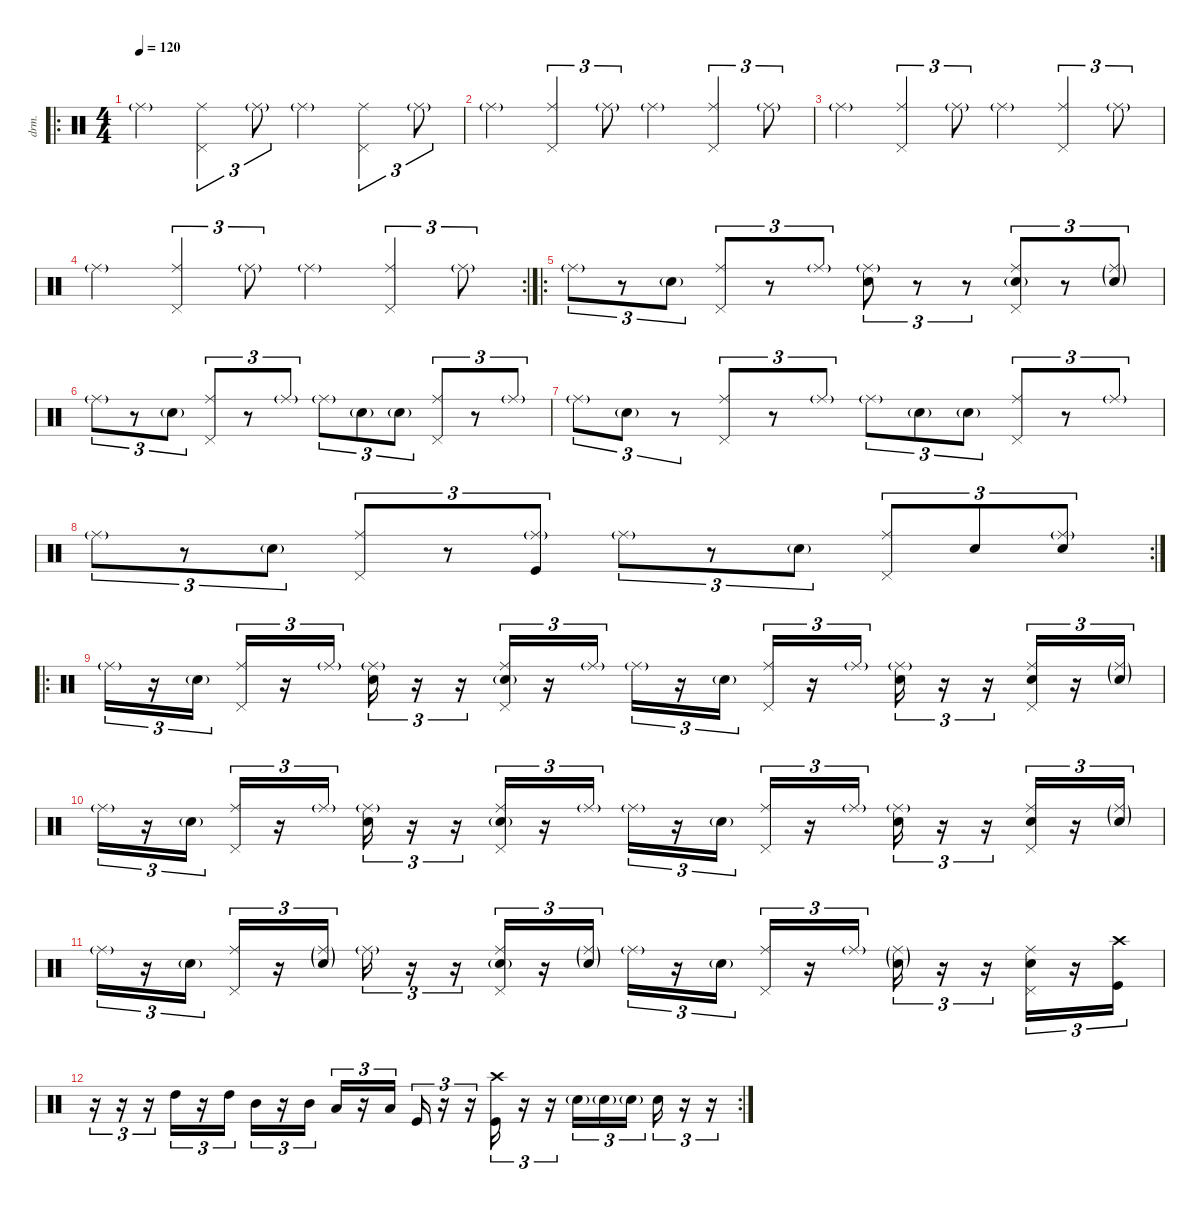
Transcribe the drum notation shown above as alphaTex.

\defaultSystemsLayout 4
\hideDynamics
\bracketExtendMode nobrackets
\track ("5_4" "drm.") {instrument percussion}
\staff {score}
\articulation defaults
\ro
\ts (4 4)
\tempo 120
\clef neutral
\ks c "Ride (middle)"{g}.4{dy mf beam Down}
("Ride (middle)" "Pedal Hi-Hat (hit)").4{tu (3 2) beam Down} "Ride (middle)"{g}.8{tu (3 2) beam Down} "Ride (middle)"{g}.4{beam Down} ("Ride (middle)" "Pedal Hi-Hat (hit)").4{tu (3 2) beam Down} "Ride (middle)"{g}.8{tu (3 2) beam Down} |
"Ride (middle)"{g}.4{beam Down} ("Ride (middle)" "Pedal Hi-Hat (hit)").4{tu (3 2) beam Up} "Ride (middle)"{g}.8{tu (3 2) beam Down} "Ride (middle)"{g}.4{beam Down} ("Ride (middle)" "Pedal Hi-Hat (hit)").4{tu (3 2) beam Up} "Ride (middle)"{g}.8{tu (3 2) beam Down} |
"Ride (middle)"{g}.4{beam Down} ("Ride (middle)" "Pedal Hi-Hat (hit)").4{tu (3 2) beam Up} "Ride (middle)"{g}.8{tu (3 2) beam Down} "Ride (middle)"{g}.4{beam Down} ("Ride (middle)" "Pedal Hi-Hat (hit)").4{tu (3 2) beam Up} "Ride (middle)"{g}.8{tu (3 2) beam Down} |
\rc 2 "Ride (middle)"{g}.4{beam Down}
("Ride (middle)" "Pedal Hi-Hat (hit)").4{tu (3 2) beam Up} "Ride (middle)"{g}.8{tu (3 2) beam Down} "Ride (middle)"{g}.4{beam Down} ("Ride (middle)" "Pedal Hi-Hat (hit)").4{tu (3 2) beam Up} "Ride (middle)"{g}.8{tu (3 2) beam Down} |
\ro "Ride (middle)"{g}.8{tu (3 2) beam Down}
r.8{tu (3 2) beam Down} "Snare (hit) 2"{g}.8{tu (3 2) beam Down} ("Ride (middle)" "Pedal Hi-Hat (hit)").8{tu (3 2) beam Up} r.8{tu (3 2) beam Up} "Ride (middle)"{g}.8{tu (3 2) beam Up} ("Ride (middle)"{g} "Snare (hit) 2").8{tu (3 2) beam Down} r.8{tu (3 2) beam Down} r.8{tu (3 2) beam Down} ("Ride (middle)" "Pedal Hi-Hat (hit)" "Snare (hit) 2"{g}).8{tu (3 2) beam Up} r.8{tu (3 2) beam Up} ("Ride (middle)"{g} "Snare (hit) 2"{g}).8{tu (3 2) beam Up} |
"Ride (middle)"{g}.8{tu (3 2) beam Down} r.8{tu (3 2) beam Down} "Snare (hit) 2"{g}.8{tu (3 2) beam Down} ("Ride (middle)" "Pedal Hi-Hat (hit)").8{tu (3 2) beam Up} r.8{tu (3 2) beam Up} "Ride (middle)"{g}.8{tu (3 2) beam Up} "Ride (middle)"{g}.8{tu (3 2) beam Down} "Snare (hit) 2"{g}.8{tu (3 2) beam Down} "Snare (hit) 2"{g}.8{tu (3 2) beam Down} ("Ride (middle)" "Pedal Hi-Hat (hit)").8{tu (3 2) beam Up} r.8{tu (3 2) beam Up} "Ride (middle)"{g}.8{tu (3 2) beam Up} |
"Ride (middle)"{g}.8{tu (3 2) beam Down} "Snare (hit) 2"{g}.8{tu (3 2) beam Down} r.8{tu (3 2) beam Down} ("Ride (middle)" "Pedal Hi-Hat (hit)").8{tu (3 2) beam Up} r.8{tu (3 2) beam Up} "Ride (middle)"{g}.8{tu (3 2) beam Up} "Ride (middle)"{g}.8{tu (3 2) beam Down} "Snare (hit) 2"{g}.8{tu (3 2) beam Down} "Snare (hit) 2"{g}.8{tu (3 2) beam Down} ("Ride (middle)" "Pedal Hi-Hat (hit)").8{tu (3 2) beam Up} r.8{tu (3 2) beam Up} "Ride (middle)"{g}.8{tu (3 2) beam Up} |
\rc 2 "Ride (middle)"{g}.8{tu (3 2) beam Down}
r.8{tu (3 2) beam Down} "Snare (hit) 2"{g}.8{tu (3 2) beam Down} ("Ride (middle)" "Pedal Hi-Hat (hit)").8{tu (3 2) beam Up} r.8{tu (3 2) beam Up} ("Ride (middle)"{g} "Kick (hit)").8{tu (3 2) beam Up} "Ride (middle)"{g}.8{tu (3 2) beam Down} r.8{tu (3 2) beam Down} "Snare (hit) 2"{g}.8{tu (3 2) beam Down} ("Ride (middle)" "Pedal Hi-Hat (hit)").8{tu (3 2) beam Up} "Snare (hit) 2".8{tu (3 2) beam Up} ("Ride (middle)"{g} "Snare (hit) 2").8{tu (3 2) beam Up} |
\ro "Ride (middle)"{g}.16{tu (3 2) beam Down}
r.16{tu (3 2) beam Down} "Snare (hit) 2"{g}.16{tu (3 2) beam Down} ("Ride (middle)" "Pedal Hi-Hat (hit)").16{tu (3 2) beam Up} r.16{tu (3 2) beam Up} "Ride (middle)"{g}.16{tu (3 2) beam Up} ("Ride (middle)"{g} "Snare (hit) 2").16{tu (3 2) beam Down} r.16{tu (3 2) beam Down} r.16{tu (3 2) beam Down} ("Ride (middle)" "Pedal Hi-Hat (hit)" "Snare (hit) 2"{g}).16{tu (3 2) beam Up} r.16{tu (3 2) beam Up} "Ride (middle)"{g}.16{tu (3 2) beam Up} "Ride (middle)"{g}.16{tu (3 2) beam Down} r.16{tu (3 2) beam Down} "Snare (hit) 2"{g}.16{tu (3 2) beam Down} ("Ride (middle)" "Pedal Hi-Hat (hit)").16{tu (3 2) beam Up} r.16{tu (3 2) beam Up} "Ride (middle)"{g}.16{tu (3 2) beam Up} ("Ride (middle)"{g} "Snare (hit) 2").16{tu (3 2) beam Down} r.16{tu (3 2) beam Down} r.16{tu (3 2) beam Down} ("Ride (middle)" "Pedal Hi-Hat (hit)" "Snare (hit) 2").16{tu (3 2) beam Up} r.16{tu (3 2) beam Up} ("Ride (middle)"{g} "Snare (hit) 2"{g}).16{tu (3 2) beam Up} |
"Ride (middle)"{g}.16{tu (3 2) beam Down} r.16{tu (3 2) beam Down} "Snare (hit) 2"{g}.16{tu (3 2) beam Down} ("Ride (middle)" "Pedal Hi-Hat (hit)").16{tu (3 2) beam Up} r.16{tu (3 2) beam Up} "Ride (middle)"{g}.16{tu (3 2) beam Up} ("Ride (middle)"{g} "Snare (hit) 2").16{tu (3 2) beam Down} r.16{tu (3 2) beam Down} r.16{tu (3 2) beam Down} ("Ride (middle)" "Pedal Hi-Hat (hit)" "Snare (hit) 2"{g}).16{tu (3 2) beam Up} r.16{tu (3 2) beam Up} "Ride (middle)"{g}.16{tu (3 2) beam Up} "Ride (middle)"{g}.16{tu (3 2) beam Down} r.16{tu (3 2) beam Down} "Snare (hit) 2"{g}.16{tu (3 2) beam Down} ("Ride (middle)" "Pedal Hi-Hat (hit)").16{tu (3 2) beam Up} r.16{tu (3 2) beam Up} "Ride (middle)"{g}.16{tu (3 2) beam Up} ("Ride (middle)"{g} "Snare (hit) 2").16{tu (3 2) beam Down} r.16{tu (3 2) beam Down} r.16{tu (3 2) beam Down} ("Ride (middle)" "Pedal Hi-Hat (hit)" "Snare (hit) 2").16{tu (3 2) beam Up} r.16{tu (3 2) beam Up} ("Ride (middle)"{g} "Snare (hit) 2"{g}).16{tu (3 2) beam Up} |
"Ride (middle)"{g}.16{tu (3 2) beam Down} r.16{tu (3 2) beam Down} "Snare (hit) 2"{g}.16{tu (3 2) beam Down} ("Ride (middle)" "Pedal Hi-Hat (hit)").16{tu (3 2) beam Up} r.16{tu (3 2) beam Up} ("Ride (middle)"{g} "Snare (hit) 2"{g}).16{tu (3 2) beam Up} "Ride (middle)"{g}.16{tu (3 2) beam Down} r.16{tu (3 2) beam Down} r.16{tu (3 2) beam Down} ("Ride (middle)" "Pedal Hi-Hat (hit)" "Snare (hit) 2"{g}).16{tu (3 2) beam Up} r.16{tu (3 2) beam Up} ("Ride (middle)"{g} "Snare (hit) 2"{g}).16{tu (3 2) beam Up} "Ride (middle)"{g}.16{tu (3 2) beam Down} r.16{tu (3 2) beam Down} "Snare (hit) 2"{g}.16{tu (3 2) beam Down} ("Ride (middle)" "Pedal Hi-Hat (hit)").16{tu (3 2) beam Up} r.16{tu (3 2) beam Up} "Ride (middle)"{g}.16{tu (3 2) beam Up} ("Ride (middle)"{g} "Snare (hit) 2"{g}).16{tu (3 2) beam Down} r.16{tu (3 2) beam Down} r.16{tu (3 2) beam Down} ("Ride (middle)" "Pedal Hi-Hat (hit)" "Snare (hit) 2").16{tu (3 2) beam Down} r.16{tu (3 2) beam Down} ("Crash high (hit)" "Kick (hit)").16{tu (3 2) beam Down} |
\rc 2
r.16{tu (3 2) beam Down} r.16{tu (3 2) beam Down} r.16{tu (3 2) beam Down} "High Tom (hit)".16{tu (3 2) beam Down} r.16{tu (3 2) beam Down} "High Tom (hit)".16{tu (3 2) beam Down} "Mid Tom (hit)".16{tu (3 2) beam Down} r.16{tu (3 2) beam Down} "Mid Tom (hit)".16{tu (3 2) beam Down} "Low Tom (hit)".16{tu (3 2) beam Up} r.16{tu (3 2) beam Up} "Low Tom (hit)".16{tu (3 2) beam Up} "Kick (hit)".16{tu (3 2) beam Up} r.16{tu (3 2) beam Down} r.16{tu (3 2) beam Down} ("Kick (hit)" "Crash high (hit)").16{tu (3 2) beam Down} r.16{tu (3 2) beam Down} r.16{tu (3 2) beam Down} "Snare (hit) 2"{g}.16{tu (3 2) beam Down} "Snare (hit) 2"{g}.16{tu (3 2) beam Down} "Snare (hit) 2"{g}.16{tu (3 2) beam Down} "Snare (hit) 2".16{tu (3 2) beam Down} r.16{tu (3 2) beam Down} r.16{tu (3 2) beam Down}
